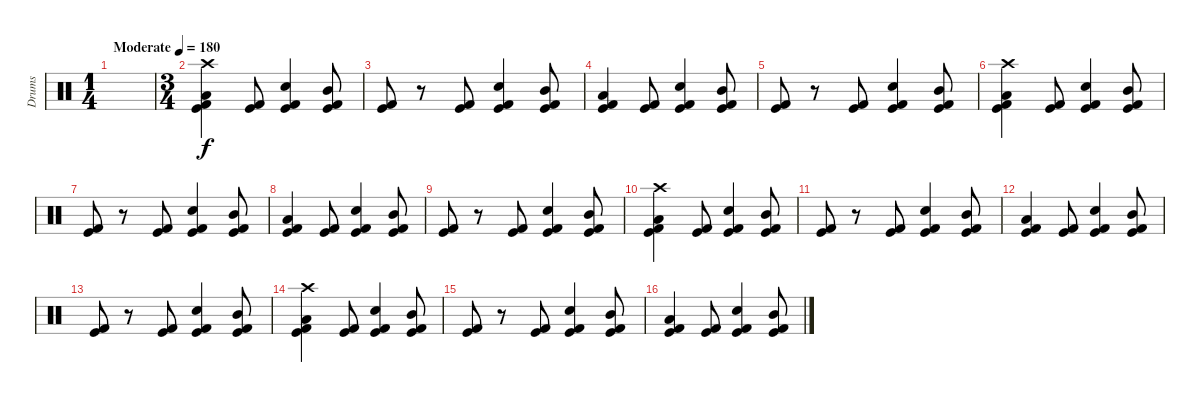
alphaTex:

\track ("Drums" "Drums") {instrument percussion}
\staff {score}
\articulation defaults
\ts (1 4)
\tempo (180 "Moderate")
\clef neutral
\ks c
|
\ts (3 4)
("Crash high (hit)" "Low Tom (hit)" "Kick (hit)" "Kick (hit) 2").4 ("Kick (hit)" "Kick (hit) 2").8 ("Snare (hit) 2" "Kick (hit)" "Kick (hit) 2").4 ("Mid Tom (hit)" "Kick (hit)" "Kick (hit) 2").8 |
("Kick (hit)" "Kick (hit) 2").8 r.8 ("Kick (hit)" "Kick (hit) 2").8 ("Snare (hit) 2" "Kick (hit)" "Kick (hit) 2").4 ("Mid Tom (hit)" "Kick (hit)" "Kick (hit) 2").8 |
("Low Tom (hit)" "Kick (hit)" "Kick (hit) 2").4 ("Kick (hit)" "Kick (hit) 2").8 ("Snare (hit) 2" "Kick (hit)" "Kick (hit) 2").4 ("Mid Tom (hit)" "Kick (hit)" "Kick (hit) 2").8 |
("Kick (hit)" "Kick (hit) 2").8 r.8 ("Kick (hit)" "Kick (hit) 2").8 ("Snare (hit) 2" "Kick (hit)" "Kick (hit) 2").4 ("Mid Tom (hit)" "Kick (hit)" "Kick (hit) 2").8 |
("Crash high (hit)" "Low Tom (hit)" "Kick (hit)" "Kick (hit) 2").4 ("Kick (hit)" "Kick (hit) 2").8 ("Snare (hit) 2" "Kick (hit)" "Kick (hit) 2").4 ("Mid Tom (hit)" "Kick (hit)" "Kick (hit) 2").8 |
("Kick (hit)" "Kick (hit) 2").8 r.8 ("Kick (hit)" "Kick (hit) 2").8 ("Snare (hit) 2" "Kick (hit)" "Kick (hit) 2").4 ("Mid Tom (hit)" "Kick (hit)" "Kick (hit) 2").8 |
("Low Tom (hit)" "Kick (hit)" "Kick (hit) 2").4 ("Kick (hit)" "Kick (hit) 2").8 ("Snare (hit) 2" "Kick (hit)" "Kick (hit) 2").4 ("Mid Tom (hit)" "Kick (hit)" "Kick (hit) 2").8 |
("Kick (hit)" "Kick (hit) 2").8 r.8 ("Kick (hit)" "Kick (hit) 2").8 ("Snare (hit) 2" "Kick (hit)" "Kick (hit) 2").4 ("Mid Tom (hit)" "Kick (hit)" "Kick (hit) 2").8 |
("Crash high (hit)" "Low Tom (hit)" "Kick (hit)" "Kick (hit) 2").4 ("Kick (hit)" "Kick (hit) 2").8 ("Snare (hit) 2" "Kick (hit)" "Kick (hit) 2").4 ("Mid Tom (hit)" "Kick (hit)" "Kick (hit) 2").8 |
("Kick (hit)" "Kick (hit) 2").8 r.8 ("Kick (hit)" "Kick (hit) 2").8 ("Snare (hit) 2" "Kick (hit)" "Kick (hit) 2").4 ("Mid Tom (hit)" "Kick (hit)" "Kick (hit) 2").8 |
("Low Tom (hit)" "Kick (hit)" "Kick (hit) 2").4 ("Kick (hit)" "Kick (hit) 2").8 ("Snare (hit) 2" "Kick (hit)" "Kick (hit) 2").4 ("Mid Tom (hit)" "Kick (hit)" "Kick (hit) 2").8 |
("Kick (hit)" "Kick (hit) 2").8 r.8 ("Kick (hit)" "Kick (hit) 2").8 ("Snare (hit) 2" "Kick (hit)" "Kick (hit) 2").4 ("Mid Tom (hit)" "Kick (hit)" "Kick (hit) 2").8 |
("Crash high (hit)" "Low Tom (hit)" "Kick (hit)" "Kick (hit) 2").4 ("Kick (hit)" "Kick (hit) 2").8 ("Snare (hit) 2" "Kick (hit)" "Kick (hit) 2").4 ("Mid Tom (hit)" "Kick (hit)" "Kick (hit) 2").8 |
("Kick (hit)" "Kick (hit) 2").8 r.8 ("Kick (hit)" "Kick (hit) 2").8 ("Snare (hit) 2" "Kick (hit)" "Kick (hit) 2").4 ("Mid Tom (hit)" "Kick (hit)" "Kick (hit) 2").8 |
("Low Tom (hit)" "Kick (hit)" "Kick (hit) 2").4 ("Kick (hit)" "Kick (hit) 2").8 ("Snare (hit) 2" "Kick (hit)" "Kick (hit) 2").4 ("Mid Tom (hit)" "Kick (hit)" "Kick (hit) 2").8
